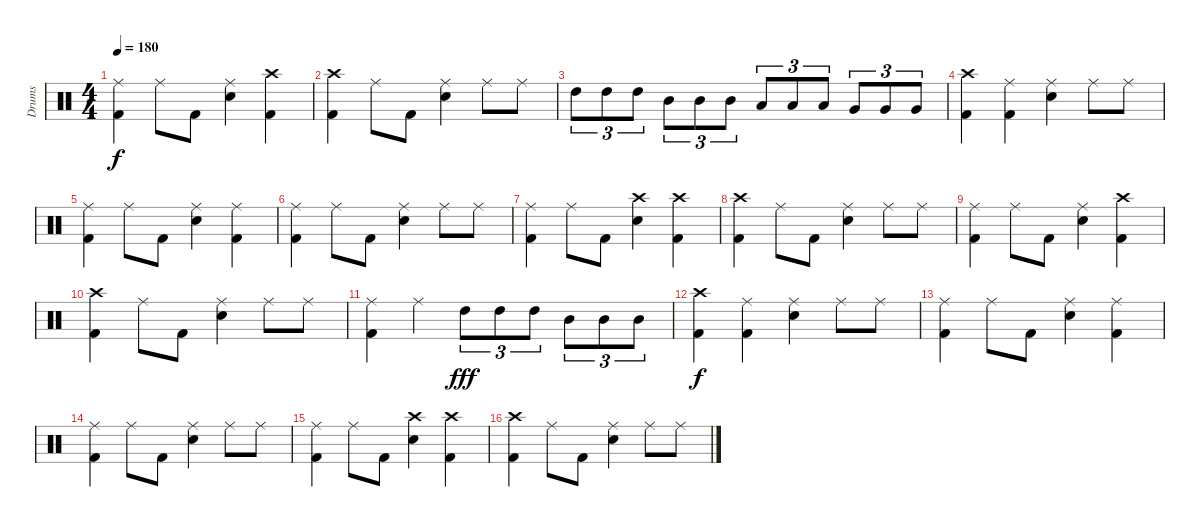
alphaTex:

\track ("Drums" "Drums") {instrument percussion}
\staff {score}
\articulation defaults
\ts (4 4)
\tempo 180
\clef neutral
\ks c
("Ride (middle)" "Kick (hit) 2").4{dy f} "Ride (middle)".8 "Kick (hit) 2".8 ("Ride (middle)" "Snare (hit) 2").4 ("Crash high (hit)" "Kick (hit) 2").4 |
("Crash high (hit)" "Kick (hit) 2").4 "Ride (middle)".8 "Kick (hit) 2".8 ("Ride (middle)" "Snare (hit) 2").4 "Ride (middle)".8 "Ride (middle)".8 |
"High Tom (hit)".8{tu (3 2)} "High Tom (hit)".8{tu (3 2)} "High Tom (hit)".8{tu (3 2)} "Mid Tom (hit)".8{tu (3 2)} "Mid Tom (hit)".8{tu (3 2)} "Mid Tom (hit)".8{tu (3 2)} "Low Tom (hit)".8{tu (3 2)} "Low Tom (hit)".8{tu (3 2)} "Low Tom (hit)".8{tu (3 2)} "Very Low Tom (hit)".8{tu (3 2)} "Very Low Tom (hit)".8{tu (3 2)} "Very Low Tom (hit)".8{tu (3 2)} |
("Crash high (hit)" "Kick (hit) 2").4 ("Ride (middle)" "Kick (hit) 2").4 ("Ride (middle)" "Snare (hit) 2").4 "Ride (middle)".8 "Ride (middle)".8 |
("Ride (middle)" "Kick (hit) 2").4 "Ride (middle)".8 "Kick (hit) 2".8 ("Ride (middle)" "Snare (hit) 2").4 ("Ride (middle)" "Kick (hit) 2").4 |
("Ride (middle)" "Kick (hit) 2").4 "Ride (middle)".8 "Kick (hit) 2".8 ("Ride (middle)" "Snare (hit) 2").4 "Ride (middle)".8 "Ride (middle)".8 |
("Ride (middle)" "Kick (hit) 2").4 "Ride (middle)".8 "Kick (hit) 2".8 ("Crash high (hit)" "Snare (hit) 2").4 ("Crash high (hit)" "Kick (hit) 2").4 |
("Crash high (hit)" "Kick (hit) 2").4 "Ride (middle)".8 "Kick (hit) 2".8 ("Ride (middle)" "Snare (hit) 2").4 "Ride (middle)".8 "Ride (middle)".8 |
("Ride (middle)" "Kick (hit) 2").4 "Ride (middle)".8 "Kick (hit) 2".8 ("Ride (middle)" "Snare (hit) 2").4 ("Crash high (hit)" "Kick (hit) 2").4 |
("Crash high (hit)" "Kick (hit) 2").4 "Ride (middle)".8 "Kick (hit) 2".8 ("Ride (middle)" "Snare (hit) 2").4 "Ride (middle)".8 "Ride (middle)".8 |
("Ride (middle)" "Kick (hit) 2").4 "Ride (middle)".4 "High Tom (hit)".8{tu (3 2) dy fff} "High Tom (hit)".8{tu (3 2)} "High Tom (hit)".8{tu (3 2)} "Mid Tom (hit)".8{tu (3 2)} "Mid Tom (hit)".8{tu (3 2)} "Mid Tom (hit)".8{tu (3 2)} |
("Crash high (hit)" "Kick (hit) 2").4{dy f} ("Ride (middle)" "Kick (hit) 2").4 ("Ride (middle)" "Snare (hit) 2").4 "Ride (middle)".8 "Ride (middle)".8 |
("Ride (middle)" "Kick (hit) 2").4 "Ride (middle)".8 "Kick (hit) 2".8 ("Ride (middle)" "Snare (hit) 2").4 ("Ride (middle)" "Kick (hit) 2").4 |
("Ride (middle)" "Kick (hit) 2").4 "Ride (middle)".8 "Kick (hit) 2".8 ("Ride (middle)" "Snare (hit) 2").4 "Ride (middle)".8 "Ride (middle)".8 |
("Ride (middle)" "Kick (hit) 2").4 "Ride (middle)".8 "Kick (hit) 2".8 ("Crash high (hit)" "Snare (hit) 2").4 ("Crash high (hit)" "Kick (hit) 2").4 |
("Crash high (hit)" "Kick (hit) 2").4 "Ride (middle)".8 "Kick (hit) 2".8 ("Ride (middle)" "Snare (hit) 2").4 "Ride (middle)".8 "Ride (middle)".8
